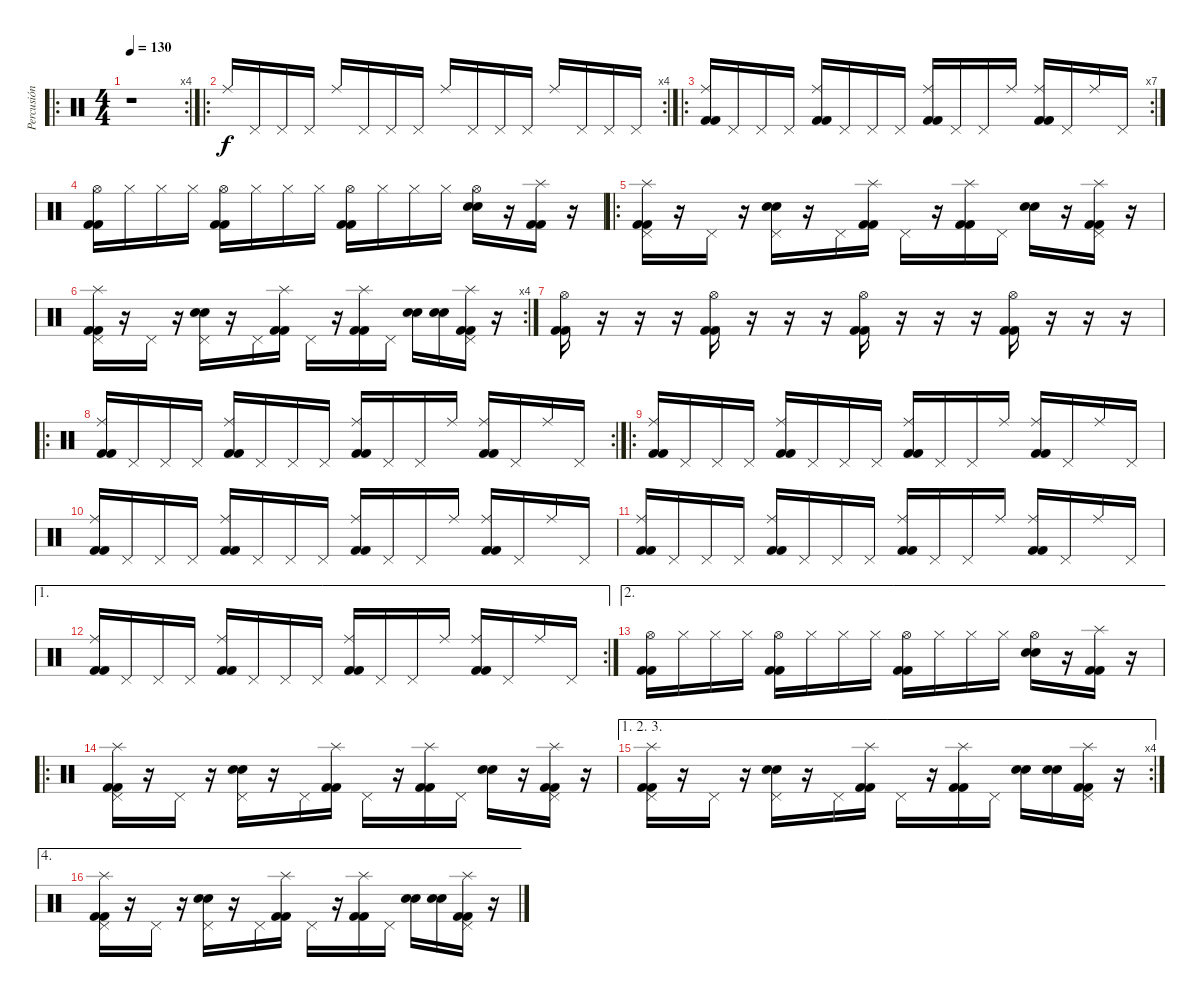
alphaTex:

\track ("Percusión" "Percusión") {instrument percussion}
\staff {score}
\articulation defaults
\ro
\rc 4
\ts (4 4)
\tempo 130
\clef neutral
\ks c
r.1{dy f} |
\ro
\rc 4 "Ride (middle)".16 "Pedal Hi-Hat (hit)".16 "Pedal Hi-Hat (hit)".16 "Pedal Hi-Hat (hit)".16 "Ride (middle)".16 "Pedal Hi-Hat (hit)".16 "Pedal Hi-Hat (hit)".16 "Pedal Hi-Hat (hit)".16 "Ride (middle)".16 "Pedal Hi-Hat (hit)".16 "Pedal Hi-Hat (hit)".16 "Pedal Hi-Hat (hit)".16 "Ride (middle)".16 "Pedal Hi-Hat (hit)".16 "Pedal Hi-Hat (hit)".16 "Pedal Hi-Hat (hit)".16
|
\ro
\rc 7
("Ride (middle)" "Kick (hit) 2" "Kick (hit) 2").16 "Pedal Hi-Hat (hit)".16 "Pedal Hi-Hat (hit)".16 "Pedal Hi-Hat (hit)".16 ("Ride (middle)" "Kick (hit) 2" "Kick (hit) 2").16 "Pedal Hi-Hat (hit)".16 "Pedal Hi-Hat (hit)".16 "Pedal Hi-Hat (hit)".16 ("Ride (middle)" "Kick (hit) 2" "Kick (hit) 2").16 "Pedal Hi-Hat (hit)".16 "Pedal Hi-Hat (hit)".16 "Ride (middle)".16 ("Ride (middle)" "Kick (hit) 2" "Kick (hit) 2").16 "Pedal Hi-Hat (hit)".16 "Ride (middle)".16 "Pedal Hi-Hat (hit)".16 |
("Hi-Hat (open)" "Kick (hit) 2" "Kick (hit) 2").16 "Hi-Hat (closed)".16 "Hi-Hat (closed)".16 "Hi-Hat (closed)".16 ("Hi-Hat (open)" "Kick (hit) 2" "Kick (hit) 2").16 "Hi-Hat (closed)".16 "Hi-Hat (closed)".16 "Hi-Hat (closed)".16 ("Hi-Hat (open)" "Kick (hit) 2" "Kick (hit) 2").16 "Hi-Hat (closed)".16 "Hi-Hat (closed)".16 "Hi-Hat (closed)".16 ("Hi-Hat (open)" "Electric Snare (hit)" "Electric Snare (hit)").16 r.16 ("Splash (hit)" "Kick (hit) 2" "Kick (hit) 2").16 r.16 |
\ro
("Pedal Hi-Hat (hit)" "Splash (hit)" "Kick (hit) 2" "Kick (hit) 2").16 r.16 "Pedal Hi-Hat (hit)".16 r.16 ("Pedal Hi-Hat (hit)" "Electric Snare (hit)" "Electric Snare (hit)").16 r.16 "Pedal Hi-Hat (hit)".16 ("Splash (hit)" "Kick (hit) 2" "Kick (hit) 2").16 "Pedal Hi-Hat (hit)".16 r.16 ("Splash (hit)" "Kick (hit) 2" "Kick (hit) 2").16 "Pedal Hi-Hat (hit)".16 ("Electric Snare (hit)" "Electric Snare (hit)").16 r.16 ("Pedal Hi-Hat (hit)" "Splash (hit)" "Kick (hit) 2" "Kick (hit) 2").16 r.16 |
\rc 4
("Pedal Hi-Hat (hit)" "Splash (hit)" "Kick (hit) 2" "Kick (hit) 2").16 r.16 "Pedal Hi-Hat (hit)".16 r.16 ("Pedal Hi-Hat (hit)" "Electric Snare (hit)" "Electric Snare (hit)").16 r.16 "Pedal Hi-Hat (hit)".16 ("Splash (hit)" "Kick (hit) 2" "Kick (hit) 2").16 "Pedal Hi-Hat (hit)".16 r.16 ("Splash (hit)" "Kick (hit) 2" "Kick (hit) 2").16 "Pedal Hi-Hat (hit)".16 ("Electric Snare (hit)" "Electric Snare (hit)").16 ("Electric Snare (hit)" "Electric Snare (hit)").16 ("Pedal Hi-Hat (hit)" "Splash (hit)" "Kick (hit) 2" "Kick (hit) 2").16 r.16 |
("Hi-Hat (open)" "Kick (hit) 2" "Kick (hit) 2").16 r.16 r.16 r.16 ("Hi-Hat (open)" "Kick (hit) 2" "Kick (hit) 2").16 r.16 r.16 r.16 ("Hi-Hat (open)" "Kick (hit) 2" "Kick (hit) 2").16 r.16 r.16 r.16 ("Hi-Hat (open)" "Kick (hit) 2" "Kick (hit) 2").16 r.16 r.16 r.16 |
\ro
\rc 2
("Ride (middle)" "Kick (hit) 2" "Kick (hit) 2").16 "Pedal Hi-Hat (hit)".16 "Pedal Hi-Hat (hit)".16 "Pedal Hi-Hat (hit)".16 ("Ride (middle)" "Kick (hit) 2" "Kick (hit) 2").16 "Pedal Hi-Hat (hit)".16 "Pedal Hi-Hat (hit)".16 "Pedal Hi-Hat (hit)".16 ("Ride (middle)" "Kick (hit) 2" "Kick (hit) 2").16 "Pedal Hi-Hat (hit)".16 "Pedal Hi-Hat (hit)".16 "Ride (middle)".16 ("Ride (middle)" "Kick (hit) 2" "Kick (hit) 2").16 "Pedal Hi-Hat (hit)".16 "Ride (middle)".16 "Pedal Hi-Hat (hit)".16 |
\ro
("Ride (middle)" "Kick (hit) 2" "Kick (hit) 2").16 "Pedal Hi-Hat (hit)".16 "Pedal Hi-Hat (hit)".16 "Pedal Hi-Hat (hit)".16 ("Ride (middle)" "Kick (hit) 2" "Kick (hit) 2").16 "Pedal Hi-Hat (hit)".16 "Pedal Hi-Hat (hit)".16 "Pedal Hi-Hat (hit)".16 ("Ride (middle)" "Kick (hit) 2" "Kick (hit) 2").16 "Pedal Hi-Hat (hit)".16 "Pedal Hi-Hat (hit)".16 "Ride (middle)".16 ("Ride (middle)" "Kick (hit) 2" "Kick (hit) 2").16 "Pedal Hi-Hat (hit)".16 "Ride (middle)".16 "Pedal Hi-Hat (hit)".16 |
("Ride (middle)" "Kick (hit) 2" "Kick (hit) 2").16 "Pedal Hi-Hat (hit)".16 "Pedal Hi-Hat (hit)".16 "Pedal Hi-Hat (hit)".16 ("Ride (middle)" "Kick (hit) 2" "Kick (hit) 2").16 "Pedal Hi-Hat (hit)".16 "Pedal Hi-Hat (hit)".16 "Pedal Hi-Hat (hit)".16 ("Ride (middle)" "Kick (hit) 2" "Kick (hit) 2").16 "Pedal Hi-Hat (hit)".16 "Pedal Hi-Hat (hit)".16 "Ride (middle)".16 ("Ride (middle)" "Kick (hit) 2" "Kick (hit) 2").16 "Pedal Hi-Hat (hit)".16 "Ride (middle)".16 "Pedal Hi-Hat (hit)".16 |
("Ride (middle)" "Kick (hit) 2" "Kick (hit) 2").16 "Pedal Hi-Hat (hit)".16 "Pedal Hi-Hat (hit)".16 "Pedal Hi-Hat (hit)".16 ("Ride (middle)" "Kick (hit) 2" "Kick (hit) 2").16 "Pedal Hi-Hat (hit)".16 "Pedal Hi-Hat (hit)".16 "Pedal Hi-Hat (hit)".16 ("Ride (middle)" "Kick (hit) 2" "Kick (hit) 2").16 "Pedal Hi-Hat (hit)".16 "Pedal Hi-Hat (hit)".16 "Ride (middle)".16 ("Ride (middle)" "Kick (hit) 2" "Kick (hit) 2").16 "Pedal Hi-Hat (hit)".16 "Ride (middle)".16 "Pedal Hi-Hat (hit)".16 |
\ae 1
\rc 2
("Ride (middle)" "Kick (hit) 2" "Kick (hit) 2").16 "Pedal Hi-Hat (hit)".16 "Pedal Hi-Hat (hit)".16 "Pedal Hi-Hat (hit)".16 ("Ride (middle)" "Kick (hit) 2" "Kick (hit) 2").16 "Pedal Hi-Hat (hit)".16 "Pedal Hi-Hat (hit)".16 "Pedal Hi-Hat (hit)".16 ("Ride (middle)" "Kick (hit) 2" "Kick (hit) 2").16 "Pedal Hi-Hat (hit)".16 "Pedal Hi-Hat (hit)".16 "Ride (middle)".16 ("Ride (middle)" "Kick (hit) 2" "Kick (hit) 2").16 "Pedal Hi-Hat (hit)".16 "Ride (middle)".16 "Pedal Hi-Hat (hit)".16 |
\ae 2
("Hi-Hat (open)" "Kick (hit) 2" "Kick (hit) 2").16 "Hi-Hat (closed)".16 "Hi-Hat (closed)".16 "Hi-Hat (closed)".16 ("Hi-Hat (open)" "Kick (hit) 2" "Kick (hit) 2").16 "Hi-Hat (closed)".16 "Hi-Hat (closed)".16 "Hi-Hat (closed)".16 ("Hi-Hat (open)" "Kick (hit) 2" "Kick (hit) 2").16 "Hi-Hat (closed)".16 "Hi-Hat (closed)".16 "Hi-Hat (closed)".16 ("Hi-Hat (open)" "Electric Snare (hit)" "Electric Snare (hit)").16 r.16 ("Splash (hit)" "Kick (hit) 2" "Kick (hit) 2").16 r.16 |
\ro
("Pedal Hi-Hat (hit)" "Splash (hit)" "Kick (hit) 2" "Kick (hit) 2").16 r.16 "Pedal Hi-Hat (hit)".16 r.16 ("Pedal Hi-Hat (hit)" "Electric Snare (hit)" "Electric Snare (hit)").16 r.16 "Pedal Hi-Hat (hit)".16 ("Splash (hit)" "Kick (hit) 2" "Kick (hit) 2").16 "Pedal Hi-Hat (hit)".16 r.16 ("Splash (hit)" "Kick (hit) 2" "Kick (hit) 2").16 "Pedal Hi-Hat (hit)".16 ("Electric Snare (hit)" "Electric Snare (hit)").16 r.16 ("Pedal Hi-Hat (hit)" "Splash (hit)" "Kick (hit) 2" "Kick (hit) 2").16 r.16 |
\ae (1 2 3)
\rc 4
("Pedal Hi-Hat (hit)" "Splash (hit)" "Kick (hit) 2" "Kick (hit) 2").16 r.16 "Pedal Hi-Hat (hit)".16 r.16 ("Pedal Hi-Hat (hit)" "Electric Snare (hit)" "Electric Snare (hit)").16 r.16 "Pedal Hi-Hat (hit)".16 ("Splash (hit)" "Kick (hit) 2" "Kick (hit) 2").16 "Pedal Hi-Hat (hit)".16 r.16 ("Splash (hit)" "Kick (hit) 2" "Kick (hit) 2").16 "Pedal Hi-Hat (hit)".16 ("Electric Snare (hit)" "Electric Snare (hit)").16 ("Electric Snare (hit)" "Electric Snare (hit)").16 ("Pedal Hi-Hat (hit)" "Splash (hit)" "Kick (hit) 2" "Kick (hit) 2").16 r.16 |
\ae 4
("Pedal Hi-Hat (hit)" "Splash (hit)" "Kick (hit) 2" "Kick (hit) 2").16 r.16 "Pedal Hi-Hat (hit)".16 r.16 ("Pedal Hi-Hat (hit)" "Electric Snare (hit)" "Electric Snare (hit)").16 r.16 "Pedal Hi-Hat (hit)".16 ("Splash (hit)" "Kick (hit) 2" "Kick (hit) 2").16 "Pedal Hi-Hat (hit)".16 r.16 ("Splash (hit)" "Kick (hit) 2" "Kick (hit) 2").16 "Pedal Hi-Hat (hit)".16 ("Electric Snare (hit)" "Electric Snare (hit)").16 ("Electric Snare (hit)" "Electric Snare (hit)").16 ("Pedal Hi-Hat (hit)" "Splash (hit)" "Kick (hit) 2" "Kick (hit) 2").16 r.16
